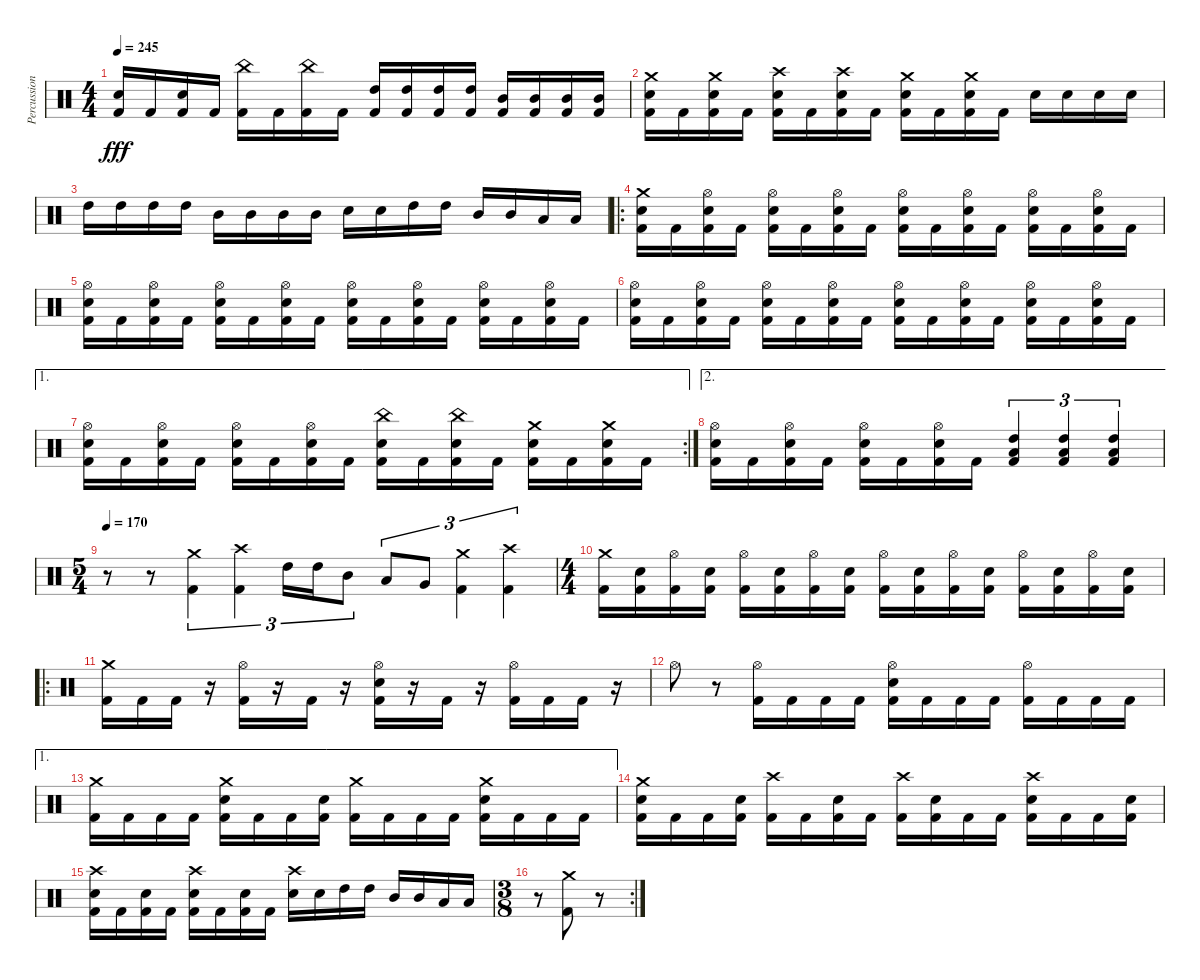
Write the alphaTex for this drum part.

\track ("Percussion" "Percussion") {instrument percussion bank 177}
\staff {score}
\articulation defaults
\ts (4 4)
\tempo 245
\clef neutral
\ks c
("Electric Snare (hit)" "Kick (hit) 2").16{dy fff} "Kick (hit) 2".16 ("Electric Snare (hit)" "Kick (hit) 2").16 "Kick (hit) 2".16 ("China (hit)" "Kick (hit) 2").16 "Kick (hit) 2".16 ("China (hit)" "Kick (hit) 2").16 "Kick (hit) 2".16 ("High Tom (hit)" "Kick (hit) 2").16 ("High Tom (hit)" "Kick (hit) 2").16 ("High Tom (hit)" "Kick (hit) 2").16 ("High Tom (hit)" "Kick (hit) 2").16 ("Mid Tom (hit)" "Kick (hit) 2").16 ("Mid Tom (hit)" "Kick (hit) 2").16 ("Mid Tom (hit)" "Kick (hit) 2").16 ("Mid Tom (hit)" "Kick (hit) 2").16 |
("Crash medium (hit)" "Electric Snare (hit)" "Kick (hit) 2").16 "Kick (hit) 2".16 ("Crash medium (hit)" "Electric Snare (hit)" "Kick (hit) 2").16 "Kick (hit) 2".16 ("Crash high (hit)" "Electric Snare (hit)" "Kick (hit) 2").16 "Kick (hit) 2".16 ("Crash high (hit)" "Electric Snare (hit)" "Kick (hit) 2").16 "Kick (hit) 2".16 ("Crash medium (hit)" "Electric Snare (hit)" "Kick (hit) 2").16 "Kick (hit) 2".16 ("Crash medium (hit)" "Electric Snare (hit)" "Kick (hit) 2").16 "Kick (hit) 2".16 "Electric Snare (hit)".16 "Electric Snare (hit)".16 "Electric Snare (hit)".16 "Electric Snare (hit)".16 |
"High Tom (hit)".16 "High Tom (hit)".16 "High Tom (hit)".16 "High Tom (hit)".16 "Mid Tom (hit)".16 "Mid Tom (hit)".16 "Mid Tom (hit)".16 "Mid Tom (hit)".16 "Electric Snare (hit)".16 "Electric Snare (hit)".16 "High Tom (hit)".16 "High Tom (hit)".16 "Mid Tom (hit)".16 "Mid Tom (hit)".16 "Low Tom (hit)".16 "Low Tom (hit)".16 |
\ro
("Crash medium (hit)" "Electric Snare (hit)" "Kick (hit) 2").16 "Kick (hit) 2".16 ("Hi-Hat (open)" "Electric Snare (hit)" "Kick (hit) 2").16 "Kick (hit) 2".16 ("Hi-Hat (open)" "Electric Snare (hit)" "Kick (hit) 2").16 "Kick (hit) 2".16 ("Hi-Hat (open)" "Electric Snare (hit)" "Kick (hit) 2").16 "Kick (hit) 2".16 ("Hi-Hat (open)" "Electric Snare (hit)" "Kick (hit) 2").16 "Kick (hit) 2".16 ("Hi-Hat (open)" "Electric Snare (hit)" "Kick (hit) 2").16 "Kick (hit) 2".16 ("Hi-Hat (open)" "Electric Snare (hit)" "Kick (hit) 2").16 "Kick (hit) 2".16 ("Hi-Hat (open)" "Electric Snare (hit)" "Kick (hit) 2").16 "Kick (hit) 2".16 |
("Hi-Hat (open)" "Electric Snare (hit)" "Kick (hit) 2").16 "Kick (hit) 2".16 ("Hi-Hat (open)" "Electric Snare (hit)" "Kick (hit) 2").16 "Kick (hit) 2".16 ("Hi-Hat (open)" "Electric Snare (hit)" "Kick (hit) 2").16 "Kick (hit) 2".16 ("Hi-Hat (open)" "Electric Snare (hit)" "Kick (hit) 2").16 "Kick (hit) 2".16 ("Hi-Hat (open)" "Electric Snare (hit)" "Kick (hit) 2").16 "Kick (hit) 2".16 ("Hi-Hat (open)" "Electric Snare (hit)" "Kick (hit) 2").16 "Kick (hit) 2".16 ("Hi-Hat (open)" "Electric Snare (hit)" "Kick (hit) 2").16 "Kick (hit) 2".16 ("Hi-Hat (open)" "Electric Snare (hit)" "Kick (hit) 2").16 "Kick (hit) 2".16 |
("Hi-Hat (open)" "Electric Snare (hit)" "Kick (hit) 2").16 "Kick (hit) 2".16 ("Hi-Hat (open)" "Electric Snare (hit)" "Kick (hit) 2").16 "Kick (hit) 2".16 ("Hi-Hat (open)" "Electric Snare (hit)" "Kick (hit) 2").16 "Kick (hit) 2".16 ("Hi-Hat (open)" "Electric Snare (hit)" "Kick (hit) 2").16 "Kick (hit) 2".16 ("Hi-Hat (open)" "Electric Snare (hit)" "Kick (hit) 2").16 "Kick (hit) 2".16 ("Hi-Hat (open)" "Electric Snare (hit)" "Kick (hit) 2").16 "Kick (hit) 2".16 ("Hi-Hat (open)" "Electric Snare (hit)" "Kick (hit) 2").16 "Kick (hit) 2".16 ("Hi-Hat (open)" "Electric Snare (hit)" "Kick (hit) 2").16 "Kick (hit) 2".16 |
\ae 1
\rc 2
("Hi-Hat (open)" "Electric Snare (hit)" "Kick (hit) 2").16 "Kick (hit) 2".16 ("Hi-Hat (open)" "Electric Snare (hit)" "Kick (hit) 2").16 "Kick (hit) 2".16 ("Hi-Hat (open)" "Electric Snare (hit)" "Kick (hit) 2").16 "Kick (hit) 2".16 ("Hi-Hat (open)" "Electric Snare (hit)" "Kick (hit) 2").16 "Kick (hit) 2".16 ("China (hit)" "Electric Snare (hit)" "Kick (hit) 2").16 "Kick (hit) 2".16 ("China (hit)" "Electric Snare (hit)" "Kick (hit) 2").16 "Kick (hit) 2".16 ("Crash medium (hit)" "Electric Snare (hit)" "Kick (hit) 2").16 "Kick (hit) 2".16 ("Crash medium (hit)" "Electric Snare (hit)" "Kick (hit) 2").16 "Kick (hit) 2".16 |
\ae 2
("Hi-Hat (open)" "Electric Snare (hit)" "Kick (hit) 2").16 "Kick (hit) 2".16 ("Hi-Hat (open)" "Electric Snare (hit)" "Kick (hit) 2").16 "Kick (hit) 2".16 ("Hi-Hat (open)" "Electric Snare (hit)" "Kick (hit) 2").16 "Kick (hit) 2".16 ("Hi-Hat (open)" "Electric Snare (hit)" "Kick (hit) 2").16 "Kick (hit) 2".16 ("Low Tom (hit)" "Kick (hit) 2" "High Tom (hit)").4{tu (3 2)} ("Low Tom (hit)" "Kick (hit) 2" "High Tom (hit)").4{tu (3 2)} ("Low Tom (hit)" "Kick (hit) 2" "High Tom (hit)").4{tu (3 2)} |
\ts (5 4)
\tempo 170
r.8 r.8 ("Crash medium (hit)" "Kick (hit) 2").4{tu (3 2)} ("Crash high (hit)" "Kick (hit) 2").4{tu (3 2)} "High Tom (hit)".16{tu (3 2)} "High Tom (hit)".16{tu (3 2)} "Mid Tom (hit)".8{tu (3 2)} "Low Tom (hit)".8{tu (3 2)} "Very Low Tom (hit)".8{tu (3 2)} ("Crash medium (hit)" "Kick (hit) 2").4{tu (3 2)} ("Crash high (hit)" "Kick (hit) 2").4{tu (3 2)} |
\ts (4 4)
("Crash medium (hit)" "Kick (hit) 2").16 ("Electric Snare (hit)" "Kick (hit) 2").16 ("Hi-Hat (open)" "Kick (hit) 2").16 ("Electric Snare (hit)" "Kick (hit) 2").16 ("Hi-Hat (open)" "Kick (hit) 2").16 ("Electric Snare (hit)" "Kick (hit) 2").16 ("Hi-Hat (open)" "Kick (hit) 2").16 ("Electric Snare (hit)" "Kick (hit) 2").16 ("Hi-Hat (open)" "Kick (hit) 2").16 ("Electric Snare (hit)" "Kick (hit) 2").16 ("Hi-Hat (open)" "Kick (hit) 2").16 ("Electric Snare (hit)" "Kick (hit) 2").16 ("Hi-Hat (open)" "Kick (hit) 2").16 ("Electric Snare (hit)" "Kick (hit) 2").16 ("Hi-Hat (open)" "Kick (hit) 2").16 ("Electric Snare (hit)" "Kick (hit) 2").16 |
\ro
("Crash medium (hit)" "Kick (hit) 2").16 "Kick (hit) 2".16 "Kick (hit) 2".16 r.16 ("Hi-Hat (open)" "Kick (hit) 2").16 r.16 "Kick (hit) 2".16 r.16 ("Hi-Hat (open)" "Electric Snare (hit)" "Kick (hit) 2").16 r.16 "Kick (hit) 2".16 r.16 ("Hi-Hat (open)" "Kick (hit) 2").16 "Kick (hit) 2".16 "Kick (hit) 2".16 r.16 |
"Hi-Hat (open)".8 r.8 ("Hi-Hat (open)" "Kick (hit) 2").16 "Kick (hit) 2".16 "Kick (hit) 2".16 "Kick (hit) 2".16 ("Hi-Hat (open)" "Electric Snare (hit)" "Kick (hit) 2").16 "Kick (hit) 2".16 "Kick (hit) 2".16 "Kick (hit) 2".16 ("Hi-Hat (open)" "Kick (hit) 2").16 "Kick (hit) 2".16 "Kick (hit) 2".16 "Kick (hit) 2".16 |
\ae 1
("Crash medium (hit)" "Kick (hit) 2").16 "Kick (hit) 2".16 "Kick (hit) 2".16 "Kick (hit) 2".16 ("Crash medium (hit)" "Electric Snare (hit)" "Kick (hit) 2").16 "Kick (hit) 2".16 "Kick (hit) 2".16 ("Electric Snare (hit)" "Kick (hit) 2").16 ("Crash medium (hit)" "Kick (hit) 2").16 "Kick (hit) 2".16 "Kick (hit) 2".16 "Kick (hit) 2".16 ("Crash medium (hit)" "Electric Snare (hit)" "Kick (hit) 2").16 "Kick (hit) 2".16 "Kick (hit) 2".16 "Kick (hit) 2".16 |
("Crash medium (hit)" "Electric Snare (hit)" "Kick (hit) 2").16 "Kick (hit) 2".16 "Kick (hit) 2".16 ("Electric Snare (hit)" "Kick (hit) 2").16 ("Crash high (hit)" "Kick (hit) 2").16 "Kick (hit) 2".16 ("Electric Snare (hit)" "Kick (hit) 2").16 "Kick (hit) 2".16 ("Crash high (hit)" "Kick (hit) 2").16 ("Electric Snare (hit)" "Kick (hit) 2").16 "Kick (hit) 2".16 "Kick (hit) 2".16 ("Crash high (hit)" "Electric Snare (hit)" "Kick (hit) 2").16 "Kick (hit) 2".16 "Kick (hit) 2".16 ("Electric Snare (hit)" "Kick (hit) 2").16 |
("Crash high (hit)" "Electric Snare (hit)" "Kick (hit) 2").16 "Kick (hit) 2".16 ("Electric Snare (hit)" "Kick (hit) 2").16 "Kick (hit) 2".16 ("Crash high (hit)" "Electric Snare (hit)" "Kick (hit) 2").16 "Kick (hit) 2".16 ("Electric Snare (hit)" "Kick (hit) 2").16 "Kick (hit) 2".16 ("Crash high (hit)" "Electric Snare (hit)").16 "Electric Snare (hit)".16 "High Tom (hit)".16 "High Tom (hit)".16 "Mid Tom (hit)".16 "Mid Tom (hit)".16 "Low Tom (hit)".16 "Low Tom (hit)".16 |
\rc 2
\ts (3 8)
r.8 ("Crash medium (hit)" "Kick (hit) 2").8 r.8
